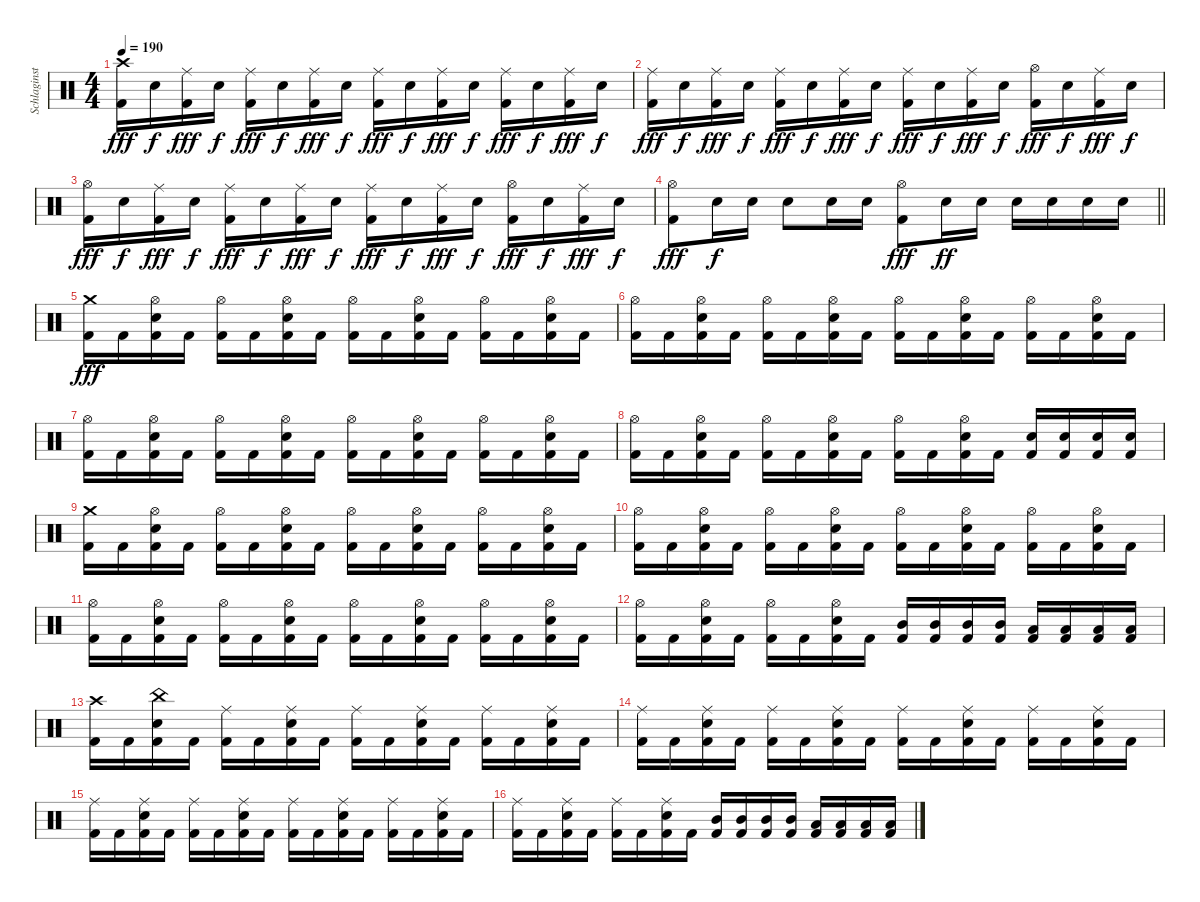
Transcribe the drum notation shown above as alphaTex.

\track ("Schlaginstrumente - Auswahl" "Schlaginst") {instrument percussion}
\staff {score}
\articulation defaults
\ts (4 4)
\tempo 190
\clef neutral
\ks c
("Crash high (hit)" "Kick (hit) 2").16{dy fff} "Snare (hit) 2".16{dy f} ("Ride (middle)" "Kick (hit) 2").16{dy fff} "Snare (hit) 2".16{dy f} ("Ride (middle)" "Kick (hit) 2").16{dy fff} "Snare (hit) 2".16{dy f} ("Ride (middle)" "Kick (hit) 2").16{dy fff} "Snare (hit) 2".16{dy f} ("Ride (middle)" "Kick (hit) 2").16{dy fff} "Snare (hit) 2".16{dy f} ("Ride (middle)" "Kick (hit) 2").16{dy fff} "Snare (hit) 2".16{dy f} ("Ride (middle)" "Kick (hit) 2").16{dy fff} "Snare (hit) 2".16{dy f} ("Ride (middle)" "Kick (hit) 2").16{dy fff} "Snare (hit) 2".16{dy f} |
("Ride (middle)" "Kick (hit) 2").16{dy fff} "Snare (hit) 2".16{dy f} ("Ride (middle)" "Kick (hit) 2").16{dy fff} "Snare (hit) 2".16{dy f} ("Ride (middle)" "Kick (hit) 2").16{dy fff} "Snare (hit) 2".16{dy f} ("Ride (middle)" "Kick (hit) 2").16{dy fff} "Snare (hit) 2".16{dy f} ("Ride (middle)" "Kick (hit) 2").16{dy fff} "Snare (hit) 2".16{dy f} ("Ride (middle)" "Kick (hit) 2").16{dy fff} "Snare (hit) 2".16{dy f} ("Hi-Hat (open)" "Kick (hit) 2").16{dy fff} "Snare (hit) 2".16{dy f} ("Ride (middle)" "Kick (hit) 2").16{dy fff} "Snare (hit) 2".16{dy f} |
("Hi-Hat (open)" "Kick (hit) 2").16{dy fff} "Snare (hit) 2".16{dy f} ("Ride (middle)" "Kick (hit) 2").16{dy fff} "Snare (hit) 2".16{dy f} ("Ride (middle)" "Kick (hit) 2").16{dy fff} "Snare (hit) 2".16{dy f} ("Ride (middle)" "Kick (hit) 2").16{dy fff} "Snare (hit) 2".16{dy f} ("Ride (middle)" "Kick (hit) 2").16{dy fff} "Snare (hit) 2".16{dy f} ("Ride (middle)" "Kick (hit) 2").16{dy fff} "Snare (hit) 2".16{dy f} ("Hi-Hat (open)" "Kick (hit) 2").16{dy fff} "Snare (hit) 2".16{dy f} ("Ride (middle)" "Kick (hit) 2").16{dy fff} "Snare (hit) 2".16{dy f} |
\barLineRight lightlight
("Hi-Hat (open)" "Kick (hit) 2").8{dy fff} "Snare (hit) 2".16{dy f} "Snare (hit) 2".16 "Snare (hit) 2".8 "Snare (hit) 2".16 "Snare (hit) 2".16 ("Hi-Hat (open)" "Kick (hit) 2").8{dy fff} "Snare (hit) 2".16{dy ff} "Snare (hit) 2".16 "Snare (hit) 2".16 "Snare (hit) 2".16 "Snare (hit) 2".16 "Snare (hit) 2".16 |
("Crash medium (hit)" "Kick (hit) 2").16{dy fff} "Kick (hit) 2".16 ("Hi-Hat (open)" "Snare (hit) 2" "Kick (hit) 2").16 "Kick (hit) 2".16 ("Hi-Hat (open)" "Kick (hit) 2").16 "Kick (hit) 2".16 ("Hi-Hat (open)" "Snare (hit) 2" "Kick (hit) 2").16 "Kick (hit) 2".16 ("Hi-Hat (open)" "Kick (hit) 2").16 "Kick (hit) 2".16 ("Hi-Hat (open)" "Snare (hit) 2" "Kick (hit) 2").16 "Kick (hit) 2".16 ("Hi-Hat (open)" "Kick (hit) 2").16 "Kick (hit) 2".16 ("Hi-Hat (open)" "Snare (hit) 2" "Kick (hit) 2").16 "Kick (hit) 2".16 |
("Hi-Hat (open)" "Kick (hit) 2").16 "Kick (hit) 2".16 ("Hi-Hat (open)" "Snare (hit) 2" "Kick (hit) 2").16 "Kick (hit) 2".16 ("Hi-Hat (open)" "Kick (hit) 2").16 "Kick (hit) 2".16 ("Hi-Hat (open)" "Snare (hit) 2" "Kick (hit) 2").16 "Kick (hit) 2".16 ("Hi-Hat (open)" "Kick (hit) 2").16 "Kick (hit) 2".16 ("Hi-Hat (open)" "Snare (hit) 2" "Kick (hit) 2").16 "Kick (hit) 2".16 ("Hi-Hat (open)" "Kick (hit) 2").16 "Kick (hit) 2".16 ("Hi-Hat (open)" "Snare (hit) 2" "Kick (hit) 2").16 "Kick (hit) 2".16 |
("Hi-Hat (open)" "Kick (hit) 2").16 "Kick (hit) 2".16 ("Hi-Hat (open)" "Snare (hit) 2" "Kick (hit) 2").16 "Kick (hit) 2".16 ("Hi-Hat (open)" "Kick (hit) 2").16 "Kick (hit) 2".16 ("Hi-Hat (open)" "Snare (hit) 2" "Kick (hit) 2").16 "Kick (hit) 2".16 ("Hi-Hat (open)" "Kick (hit) 2").16 "Kick (hit) 2".16 ("Hi-Hat (open)" "Snare (hit) 2" "Kick (hit) 2").16 "Kick (hit) 2".16 ("Hi-Hat (open)" "Kick (hit) 2").16 "Kick (hit) 2".16 ("Hi-Hat (open)" "Snare (hit) 2" "Kick (hit) 2").16 "Kick (hit) 2".16 |
("Hi-Hat (open)" "Kick (hit) 2").16 "Kick (hit) 2".16 ("Hi-Hat (open)" "Snare (hit) 2" "Kick (hit) 2").16 "Kick (hit) 2".16 ("Hi-Hat (open)" "Kick (hit) 2").16 "Kick (hit) 2".16 ("Hi-Hat (open)" "Snare (hit) 2" "Kick (hit) 2").16 "Kick (hit) 2".16 ("Hi-Hat (open)" "Kick (hit) 2").16 "Kick (hit) 2".16 ("Hi-Hat (open)" "Snare (hit) 2" "Kick (hit) 2").16 "Kick (hit) 2".16 ("Snare (hit) 2" "Kick (hit) 2").16 ("Snare (hit) 2" "Kick (hit) 2").16 ("Snare (hit) 2" "Kick (hit) 2").16 ("Snare (hit) 2" "Kick (hit) 2").16 |
("Crash medium (hit)" "Kick (hit) 2").16 "Kick (hit) 2".16 ("Hi-Hat (open)" "Snare (hit) 2" "Kick (hit) 2").16 "Kick (hit) 2".16 ("Hi-Hat (open)" "Kick (hit) 2").16 "Kick (hit) 2".16 ("Hi-Hat (open)" "Snare (hit) 2" "Kick (hit) 2").16 "Kick (hit) 2".16 ("Hi-Hat (open)" "Kick (hit) 2").16 "Kick (hit) 2".16 ("Hi-Hat (open)" "Snare (hit) 2" "Kick (hit) 2").16 "Kick (hit) 2".16 ("Hi-Hat (open)" "Kick (hit) 2").16 "Kick (hit) 2".16 ("Hi-Hat (open)" "Snare (hit) 2" "Kick (hit) 2").16 "Kick (hit) 2".16 |
("Hi-Hat (open)" "Kick (hit) 2").16 "Kick (hit) 2".16 ("Hi-Hat (open)" "Snare (hit) 2" "Kick (hit) 2").16 "Kick (hit) 2".16 ("Hi-Hat (open)" "Kick (hit) 2").16 "Kick (hit) 2".16 ("Hi-Hat (open)" "Snare (hit) 2" "Kick (hit) 2").16 "Kick (hit) 2".16 ("Hi-Hat (open)" "Kick (hit) 2").16 "Kick (hit) 2".16 ("Hi-Hat (open)" "Snare (hit) 2" "Kick (hit) 2").16 "Kick (hit) 2".16 ("Hi-Hat (open)" "Kick (hit) 2").16 "Kick (hit) 2".16 ("Hi-Hat (open)" "Snare (hit) 2" "Kick (hit) 2").16 "Kick (hit) 2".16 |
("Hi-Hat (open)" "Kick (hit) 2").16 "Kick (hit) 2".16 ("Hi-Hat (open)" "Snare (hit) 2" "Kick (hit) 2").16 "Kick (hit) 2".16 ("Hi-Hat (open)" "Kick (hit) 2").16 "Kick (hit) 2".16 ("Hi-Hat (open)" "Snare (hit) 2" "Kick (hit) 2").16 "Kick (hit) 2".16 ("Hi-Hat (open)" "Kick (hit) 2").16 "Kick (hit) 2".16 ("Hi-Hat (open)" "Snare (hit) 2" "Kick (hit) 2").16 "Kick (hit) 2".16 ("Hi-Hat (open)" "Kick (hit) 2").16 "Kick (hit) 2".16 ("Hi-Hat (open)" "Snare (hit) 2" "Kick (hit) 2").16 "Kick (hit) 2".16 |
("Hi-Hat (open)" "Kick (hit) 2").16 "Kick (hit) 2".16 ("Hi-Hat (open)" "Snare (hit) 2" "Kick (hit) 2").16 "Kick (hit) 2".16 ("Hi-Hat (open)" "Kick (hit) 2").16 "Kick (hit) 2".16 ("Hi-Hat (open)" "Snare (hit) 2" "Kick (hit) 2").16 "Kick (hit) 2".16 ("Mid Tom (hit)" "Kick (hit) 2").16 ("Mid Tom (hit)" "Kick (hit) 2").16 ("Mid Tom (hit)" "Kick (hit) 2").16 ("Mid Tom (hit)" "Kick (hit) 2").16 ("Low Tom (hit)" "Kick (hit) 2").16 ("Low Tom (hit)" "Kick (hit) 2").16 ("Low Tom (hit)" "Kick (hit) 2").16 ("Low Tom (hit)" "Kick (hit) 2").16 |
("Crash high (hit)" "Kick (hit) 2").16 "Kick (hit) 2".16 ("China (hit)" "Snare (hit) 2" "Kick (hit) 2").16 "Kick (hit) 2".16 ("Ride (middle)" "Kick (hit) 2").16 "Kick (hit) 2".16 ("Ride (middle)" "Snare (hit) 2" "Kick (hit) 2").16 "Kick (hit) 2".16 ("Ride (middle)" "Kick (hit) 2").16 "Kick (hit) 2".16 ("Ride (middle)" "Snare (hit) 2" "Kick (hit) 2").16 "Kick (hit) 2".16 ("Ride (middle)" "Kick (hit) 2").16 "Kick (hit) 2".16 ("Ride (middle)" "Snare (hit) 2" "Kick (hit) 2").16 "Kick (hit) 2".16 |
("Ride (middle)" "Kick (hit) 2").16 "Kick (hit) 2".16 ("Ride (middle)" "Snare (hit) 2" "Kick (hit) 2").16 "Kick (hit) 2".16 ("Ride (middle)" "Kick (hit) 2").16 "Kick (hit) 2".16 ("Ride (middle)" "Snare (hit) 2" "Kick (hit) 2").16 "Kick (hit) 2".16 ("Ride (middle)" "Kick (hit) 2").16 "Kick (hit) 2".16 ("Ride (middle)" "Snare (hit) 2" "Kick (hit) 2").16 "Kick (hit) 2".16 ("Ride (middle)" "Kick (hit) 2").16 "Kick (hit) 2".16 ("Ride (middle)" "Snare (hit) 2" "Kick (hit) 2").16 "Kick (hit) 2".16 |
("Ride (middle)" "Kick (hit) 2").16 "Kick (hit) 2".16 ("Ride (middle)" "Snare (hit) 2" "Kick (hit) 2").16 "Kick (hit) 2".16 ("Ride (middle)" "Kick (hit) 2").16 "Kick (hit) 2".16 ("Ride (middle)" "Snare (hit) 2" "Kick (hit) 2").16 "Kick (hit) 2".16 ("Ride (middle)" "Kick (hit) 2").16 "Kick (hit) 2".16 ("Ride (middle)" "Snare (hit) 2" "Kick (hit) 2").16 "Kick (hit) 2".16 ("Ride (middle)" "Kick (hit) 2").16 "Kick (hit) 2".16 ("Ride (middle)" "Snare (hit) 2" "Kick (hit) 2").16 "Kick (hit) 2".16 |
("Ride (middle)" "Kick (hit) 2").16 "Kick (hit) 2".16 ("Ride (middle)" "Snare (hit) 2" "Kick (hit) 2").16 "Kick (hit) 2".16 ("Ride (middle)" "Kick (hit) 2").16 "Kick (hit) 2".16 ("Ride (middle)" "Snare (hit) 2" "Kick (hit) 2").16 "Kick (hit) 2".16 ("Mid Tom (hit)" "Kick (hit) 2").16 ("Mid Tom (hit)" "Kick (hit) 2").16 ("Mid Tom (hit)" "Kick (hit) 2").16 ("Mid Tom (hit)" "Kick (hit) 2").16 ("Low Tom (hit)" "Kick (hit) 2").16 ("Low Tom (hit)" "Kick (hit) 2").16 ("Low Tom (hit)" "Kick (hit) 2").16 ("Low Tom (hit)" "Kick (hit) 2").16
